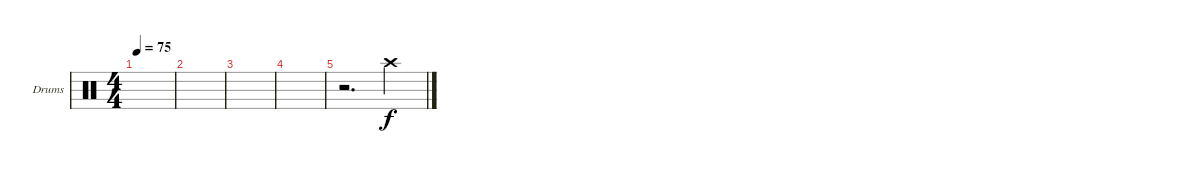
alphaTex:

\defaultSystemsLayout 4
\bracketExtendMode groupsimilarinstruments
\firstSystemTrackNameOrientation horizontal
\otherSystemsTrackNameOrientation horizontal
\track ("Craig Nunenmacher" "Drums") {instrument percussion}
\staff {score}
\articulation defaults
\ts (4 4)
\tempo 75
\clef neutral
\ks c
|
|
|
|
r.2{d} "Crash high (hit)".4
